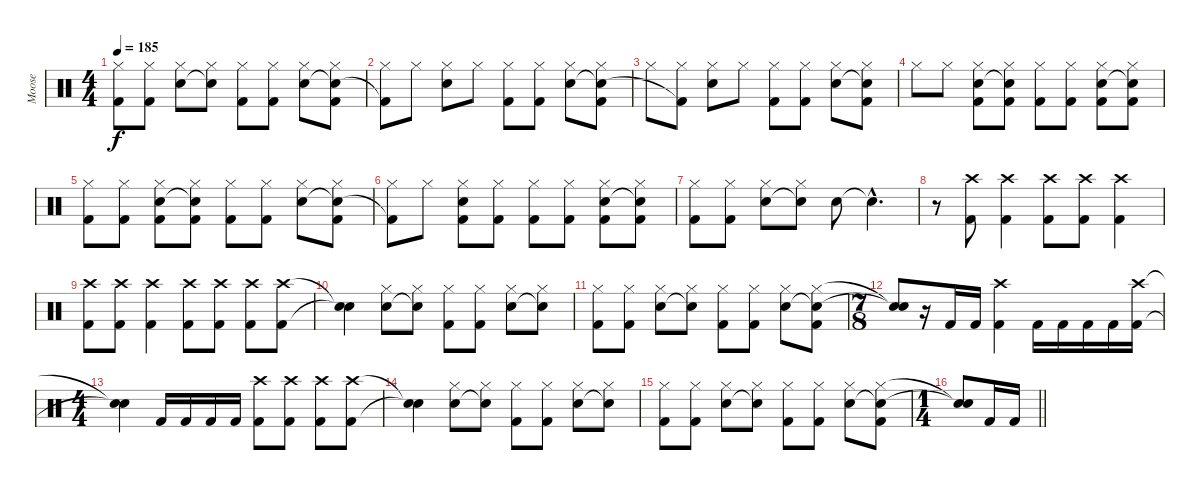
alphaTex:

\track ("Moose" "Moose") {instrument percussion}
\staff {score}
\articulation defaults
\ts (4 4)
\tempo 185
\clef neutral
\ks c
("Hi-Hat (closed)" "Kick (hit) 2").8{dy f} ("Hi-Hat (closed)" "Kick (hit) 2").8 ("Hi-Hat (closed)" "Snare (hit) 2").8 ("Hi-Hat (closed)" "Snare (hit)"{t}).8 ("Hi-Hat (closed)" "Kick (hit) 2").8 ("Hi-Hat (closed)" "Kick (hit) 2").8 ("Hi-Hat (closed)" "Snare (hit) 2").8 ("Hi-Hat (closed)" "Snare (hit)"{t} "Kick (hit) 2").8 |
("Hi-Hat (closed)" "Kick (hit) 2"{t}).8 "Hi-Hat (closed)".8 ("Hi-Hat (closed)" "Snare (hit) 2").8 "Hi-Hat (closed)".8 ("Hi-Hat (closed)" "Kick (hit) 2").8 ("Hi-Hat (closed)" "Kick (hit) 2").8 ("Hi-Hat (closed)" "Snare (hit) 2").8 ("Hi-Hat (closed)" "Snare (hit)"{t} "Kick (hit) 2").8 |
"Hi-Hat (closed)".8 ("Hi-Hat (closed)" "Kick (hit) 2"{t}).8 ("Hi-Hat (closed)" "Snare (hit) 2").8 "Hi-Hat (closed)".8 ("Hi-Hat (closed)" "Kick (hit) 2").8 ("Hi-Hat (closed)" "Kick (hit) 2").8 ("Hi-Hat (closed)" "Snare (hit) 2").8 ("Hi-Hat (closed)" "Snare (hit)"{t} "Kick (hit) 2").8 |
"Hi-Hat (closed)".8 "Hi-Hat (closed)".8 ("Hi-Hat (closed)" "Snare (hit) 2" "Kick (hit) 2").8 ("Hi-Hat (closed)" "Snare (hit)"{t} "Kick (hit) 2").8 ("Hi-Hat (closed)" "Kick (hit) 2").8 ("Hi-Hat (closed)" "Kick (hit) 2").8 ("Hi-Hat (closed)" "Snare (hit) 2" "Kick (hit) 2").8 ("Hi-Hat (closed)" "Snare (hit)"{t} "Kick (hit) 2").8 |
("Hi-Hat (closed)" "Kick (hit) 2").8 ("Hi-Hat (closed)" "Kick (hit) 2").8 ("Hi-Hat (closed)" "Snare (hit) 2" "Kick (hit) 2").8 ("Hi-Hat (closed)" "Snare (hit)"{t} "Kick (hit) 2").8 ("Hi-Hat (closed)" "Kick (hit) 2").8 ("Hi-Hat (closed)" "Kick (hit) 2").8 ("Hi-Hat (closed)" "Snare (hit) 2").8 ("Hi-Hat (closed)" "Snare (hit)"{t} "Kick (hit) 2").8 |
("Hi-Hat (closed)" "Kick (hit) 2"{t}).8 "Hi-Hat (closed)".8 ("Hi-Hat (closed)" "Snare (hit) 2" "Kick (hit) 2").8 ("Hi-Hat (closed)" "Kick (hit) 2").8 ("Hi-Hat (closed)" "Kick (hit) 2").8 ("Hi-Hat (closed)" "Kick (hit) 2").8 ("Hi-Hat (closed)" "Snare (hit) 2" "Kick (hit) 2").8 ("Hi-Hat (closed)" "Snare (hit)"{t} "Kick (hit) 2").8 |
("Hi-Hat (closed)" "Kick (hit) 2").8 ("Hi-Hat (closed)" "Kick (hit) 2").8 ("Hi-Hat (closed)" "Snare (hit) 2").8 ("Hi-Hat (closed)" "Snare (hit)"{t}).8 "Snare (hit) 2".8 "Snare (hit)"{hac t}.4{d} |
r.8 ("Crash high (hit)" "Kick (hit) 2").8 ("Crash high (hit)" "Kick (hit) 2").4 ("Crash high (hit)" "Kick (hit) 2").8 ("Crash high (hit)" "Kick (hit) 2").8 ("Crash high (hit)" "Kick (hit) 2").4 |
("Crash high (hit)" "Kick (hit) 2").8 ("Crash high (hit)" "Kick (hit) 2").8 ("Crash high (hit)" "Kick (hit) 2").4 ("Crash high (hit)" "Kick (hit) 2").8 ("Crash high (hit)" "Kick (hit) 2").8 ("Crash high (hit)" "Kick (hit) 2").8 ("Crash high (hit)" "Kick (hit) 2").8 |
("Snare (hit)"{t} "Snare (hit)"{t}).4 ("Hi-Hat (closed)" "Snare (hit) 2").8 ("Hi-Hat (closed)" "Snare (hit) 2"{t}).8 ("Hi-Hat (closed)" "Kick (hit) 2").8 ("Hi-Hat (closed)" "Kick (hit) 2").8 ("Hi-Hat (closed)" "Snare (hit) 2").8 ("Hi-Hat (closed)" "Snare (hit)"{t}).8 |
("Hi-Hat (closed)" "Kick (hit) 2").8 ("Hi-Hat (closed)" "Kick (hit) 2").8 ("Hi-Hat (closed)" "Snare (hit) 2").8 ("Hi-Hat (closed)" "Snare (hit)"{t}).8 ("Hi-Hat (closed)" "Kick (hit) 2").8 ("Hi-Hat (closed)" "Kick (hit) 2").8 ("Hi-Hat (closed)" "Snare (hit) 2").8 ("Hi-Hat (closed)" "Snare (hit)"{t} "Kick (hit) 2").8 |
\ts (7 8)
("Snare (hit)"{t} "Snare (hit)"{t}).8 r.16 "Kick (hit) 2".16 "Kick (hit) 2".16 ("Crash high (hit)" "Kick (hit) 2").4 "Kick (hit) 2".16 "Kick (hit) 2".16 "Kick (hit) 2".16 "Kick (hit) 2".16 ("Crash high (hit)" "Kick (hit) 2").16 |
\ts (4 4)
("Snare (hit)"{t} "Snare (hit)"{t}).4 "Kick (hit) 2".16 "Kick (hit) 2".16 "Kick (hit) 2".16 "Kick (hit) 2".16 ("Crash high (hit)" "Kick (hit) 2").8 ("Crash high (hit)" "Kick (hit) 2").8 ("Crash high (hit)" "Kick (hit) 2").8 ("Crash high (hit)" "Kick (hit) 2").8 |
("Snare (hit)"{t} "Snare (hit)"{t}).4 ("Hi-Hat (closed)" "Snare (hit) 2").8 ("Hi-Hat (closed)" "Snare (hit) 2"{t}).8 ("Hi-Hat (closed)" "Kick (hit) 2").8 ("Hi-Hat (closed)" "Kick (hit) 2").8 ("Hi-Hat (closed)" "Snare (hit) 2").8 ("Hi-Hat (closed)" "Snare (hit)"{t}).8 |
("Hi-Hat (closed)" "Kick (hit) 2").8 ("Hi-Hat (closed)" "Kick (hit) 2").8 ("Hi-Hat (closed)" "Snare (hit) 2").8 ("Hi-Hat (closed)" "Snare (hit)"{t}).8 ("Hi-Hat (closed)" "Kick (hit) 2").8 ("Hi-Hat (closed)" "Kick (hit) 2").8 ("Hi-Hat (closed)" "Snare (hit) 2").8 ("Hi-Hat (closed)" "Snare (hit)"{t} "Kick (hit) 2").8 |
\ts (1 4)
\barLineRight lightlight
("Snare (hit)"{t} "Snare (hit)"{t}).8 "Kick (hit) 2".16 "Kick (hit) 2".16
